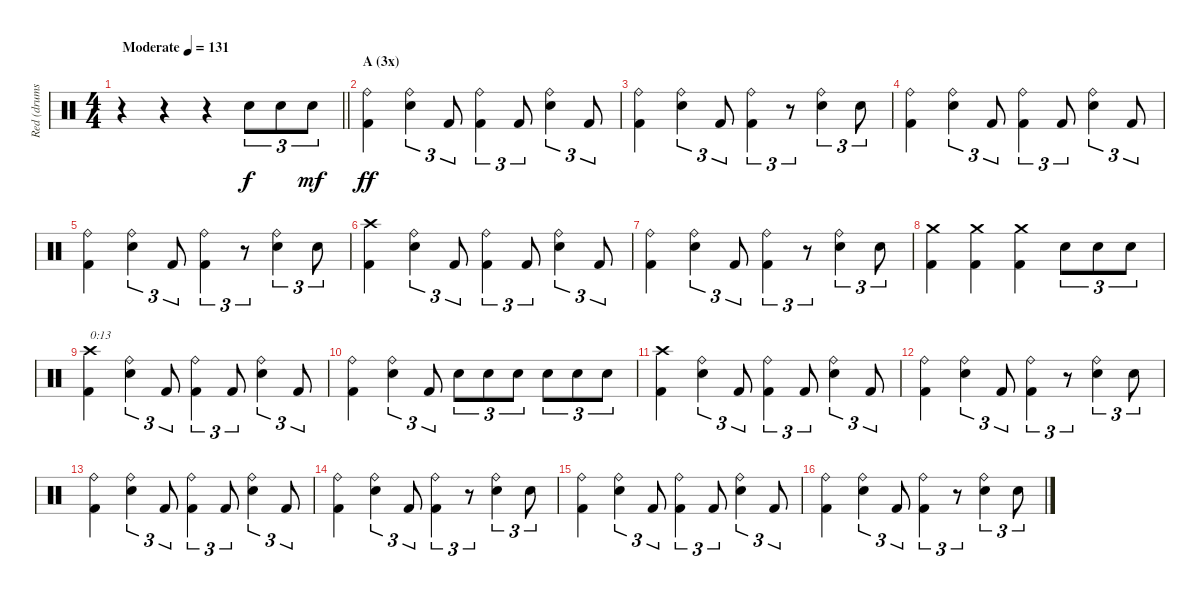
\track ("Red (drums)" "Red (drums") {instrument percussion}
\staff {score}
\articulation defaults
\ts (4 4)
\tempo (131 "Moderate")
\clef neutral
\barLineRight lightlight
\ks c
r.4{dy f} r.4 r.4 "Electric Snare (hit)".8{tu (3 2)} "Electric Snare (hit)".8{tu (3 2)} "Electric Snare (hit)".8{tu (3 2) dy mf} |
\section ("" "A (3x)")
("Ride (bell)" "Kick (hit) 2").4{dy ff} ("Ride (bell)" "Electric Snare (hit)").4{tu (3 2)} "Kick (hit) 2".8{tu (3 2)} ("Ride (bell)" "Kick (hit) 2").4{tu (3 2)} "Kick (hit) 2".8{tu (3 2)} ("Ride (bell)" "Electric Snare (hit)").4{tu (3 2)} "Kick (hit) 2".8{tu (3 2)} |
("Ride (bell)" "Kick (hit) 2").4 ("Ride (bell)" "Electric Snare (hit)").4{tu (3 2)} "Kick (hit) 2".8{tu (3 2)} ("Ride (bell)" "Kick (hit) 2").4{tu (3 2)} r.8{tu (3 2)} ("Ride (bell)" "Electric Snare (hit)").4{tu (3 2)} "Electric Snare (hit)".8{tu (3 2)} |
("Ride (bell)" "Kick (hit) 2").4 ("Ride (bell)" "Electric Snare (hit)").4{tu (3 2)} "Kick (hit) 2".8{tu (3 2)} ("Ride (bell)" "Kick (hit) 2").4{tu (3 2)} "Kick (hit) 2".8{tu (3 2)} ("Ride (bell)" "Electric Snare (hit)").4{tu (3 2)} "Kick (hit) 2".8{tu (3 2)} |
("Ride (bell)" "Kick (hit) 2").4 ("Ride (bell)" "Electric Snare (hit)").4{tu (3 2)} "Kick (hit) 2".8{tu (3 2)} ("Ride (bell)" "Kick (hit) 2").4{tu (3 2)} r.8{tu (3 2)} ("Ride (bell)" "Electric Snare (hit)").4{tu (3 2)} "Electric Snare (hit)".8{tu (3 2)} |
("Crash high (hit)" "Kick (hit) 2").4 ("Ride (bell)" "Electric Snare (hit)").4{tu (3 2)} "Kick (hit) 2".8{tu (3 2)} ("Ride (bell)" "Kick (hit) 2").4{tu (3 2)} "Kick (hit) 2".8{tu (3 2)} ("Ride (bell)" "Electric Snare (hit)").4{tu (3 2)} "Kick (hit) 2".8{tu (3 2)} |
("Ride (bell)" "Kick (hit) 2").4 ("Ride (bell)" "Electric Snare (hit)").4{tu (3 2)} "Kick (hit) 2".8{tu (3 2)} ("Ride (bell)" "Kick (hit) 2").4{tu (3 2)} r.8{tu (3 2)} ("Ride (bell)" "Electric Snare (hit)").4{tu (3 2)} "Electric Snare (hit)".8{tu (3 2)} |
("Crash medium (hit)" "Kick (hit) 2").4 ("Crash medium (hit)" "Kick (hit) 2").4 ("Crash medium (hit)" "Kick (hit) 2").4 "Electric Snare (hit)".8{tu (3 2)} "Electric Snare (hit)".8{tu (3 2)} "Electric Snare (hit)".8{tu (3 2)} |
("Crash high (hit)" "Kick (hit) 2").4{txt "0:13"} ("Ride (bell)" "Electric Snare (hit)").4{tu (3 2)} "Kick (hit) 2".8{tu (3 2)} ("Ride (bell)" "Kick (hit) 2").4{tu (3 2)} "Kick (hit) 2".8{tu (3 2)} ("Ride (bell)" "Electric Snare (hit)").4{tu (3 2)} "Kick (hit) 2".8{tu (3 2)} |
("Ride (bell)" "Kick (hit) 2").4 ("Ride (bell)" "Electric Snare (hit)").4{tu (3 2)} "Kick (hit) 2".8{tu (3 2)} "Electric Snare (hit)".8{tu (3 2)} "Electric Snare (hit)".8{tu (3 2)} "Electric Snare (hit)".8{tu (3 2)} "Electric Snare (hit)".8{tu (3 2)} "Electric Snare (hit)".8{tu (3 2)} "Electric Snare (hit)".8{tu (3 2)} |
("Crash high (hit)" "Kick (hit) 2").4 ("Ride (bell)" "Electric Snare (hit)").4{tu (3 2)} "Kick (hit) 2".8{tu (3 2)} ("Ride (bell)" "Kick (hit) 2").4{tu (3 2)} "Kick (hit) 2".8{tu (3 2)} ("Ride (bell)" "Electric Snare (hit)").4{tu (3 2)} "Kick (hit) 2".8{tu (3 2)} |
("Ride (bell)" "Kick (hit) 2").4 ("Ride (bell)" "Electric Snare (hit)").4{tu (3 2)} "Kick (hit) 2".8{tu (3 2)} ("Ride (bell)" "Kick (hit) 2").4{tu (3 2)} r.8{tu (3 2)} ("Ride (bell)" "Electric Snare (hit)").4{tu (3 2)} "Electric Snare (hit)".8{tu (3 2)} |
("Ride (bell)" "Kick (hit) 2").4 ("Ride (bell)" "Electric Snare (hit)").4{tu (3 2)} "Kick (hit) 2".8{tu (3 2)} ("Ride (bell)" "Kick (hit) 2").4{tu (3 2)} "Kick (hit) 2".8{tu (3 2)} ("Ride (bell)" "Electric Snare (hit)").4{tu (3 2)} "Kick (hit) 2".8{tu (3 2)} |
("Ride (bell)" "Kick (hit) 2").4 ("Ride (bell)" "Electric Snare (hit)").4{tu (3 2)} "Kick (hit) 2".8{tu (3 2)} ("Ride (bell)" "Kick (hit) 2").4{tu (3 2)} r.8{tu (3 2)} ("Ride (bell)" "Electric Snare (hit)").4{tu (3 2)} "Electric Snare (hit)".8{tu (3 2)} |
("Ride (bell)" "Kick (hit) 2").4 ("Ride (bell)" "Electric Snare (hit)").4{tu (3 2)} "Kick (hit) 2".8{tu (3 2)} ("Ride (bell)" "Kick (hit) 2").4{tu (3 2)} "Kick (hit) 2".8{tu (3 2)} ("Ride (bell)" "Electric Snare (hit)").4{tu (3 2)} "Kick (hit) 2".8{tu (3 2)} |
("Ride (bell)" "Kick (hit) 2").4 ("Ride (bell)" "Electric Snare (hit)").4{tu (3 2)} "Kick (hit) 2".8{tu (3 2)} ("Ride (bell)" "Kick (hit) 2").4{tu (3 2)} r.8{tu (3 2)} ("Ride (bell)" "Electric Snare (hit)").4{tu (3 2)} "Electric Snare (hit)".8{tu (3 2)}
